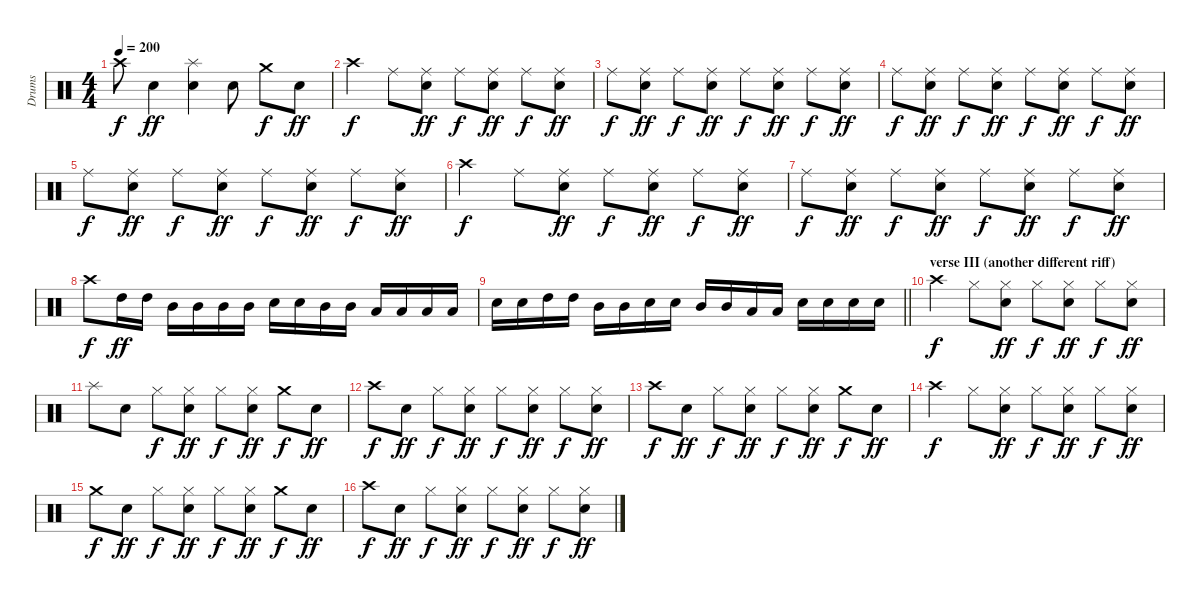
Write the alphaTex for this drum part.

\track ("Drums" "Drums") {instrument percussion}
\staff {score}
\articulation defaults
\ts (4 4)
\tempo 200
\clef neutral
\ks c "Crash high (hit)".8{dy f} "Snare (hit) 2".4{dy ff}
("Splash (hit)" "Snare (hit) 2").4 "Snare (hit) 2".8 "Crash medium (hit)".8{dy f} "Snare (hit) 2".8{dy ff} |
"Crash high (hit)".4{dy f} "Ride (middle)".8 ("Ride (middle)" "Snare (hit) 2").8{dy ff} "Ride (middle)".8{dy f} ("Ride (middle)" "Snare (hit) 2").8{dy ff} "Ride (middle)".8{dy f} ("Ride (middle)" "Snare (hit) 2").8{dy ff} |
"Ride (middle)".8{dy f} ("Ride (middle)" "Snare (hit) 2").8{dy ff} "Ride (middle)".8{dy f} ("Ride (middle)" "Snare (hit) 2").8{dy ff} "Ride (middle)".8{dy f} ("Ride (middle)" "Snare (hit) 2").8{dy ff} "Ride (middle)".8{dy f} ("Ride (middle)" "Snare (hit) 2").8{dy ff} |
"Ride (middle)".8{dy f} ("Ride (middle)" "Snare (hit) 2").8{dy ff} "Ride (middle)".8{dy f} ("Ride (middle)" "Snare (hit) 2").8{dy ff} "Ride (middle)".8{dy f} ("Ride (middle)" "Snare (hit) 2").8{dy ff} "Ride (middle)".8{dy f} ("Ride (middle)" "Snare (hit) 2").8{dy ff} |
"Ride (middle)".8{dy f} ("Ride (middle)" "Snare (hit) 2").8{dy ff} "Ride (middle)".8{dy f} ("Ride (middle)" "Snare (hit) 2").8{dy ff} "Ride (middle)".8{dy f} ("Ride (middle)" "Snare (hit) 2").8{dy ff} "Ride (middle)".8{dy f} ("Ride (middle)" "Snare (hit) 2").8{dy ff} |
"Crash high (hit)".4{dy f} "Ride (middle)".8 ("Ride (middle)" "Snare (hit) 2").8{dy ff} "Ride (middle)".8{dy f} ("Ride (middle)" "Snare (hit) 2").8{dy ff} "Ride (middle)".8{dy f} ("Ride (middle)" "Snare (hit) 2").8{dy ff} |
"Ride (middle)".8{dy f} ("Ride (middle)" "Snare (hit) 2").8{dy ff} "Ride (middle)".8{dy f} ("Ride (middle)" "Snare (hit) 2").8{dy ff} "Ride (middle)".8{dy f} ("Ride (middle)" "Snare (hit) 2").8{dy ff} "Ride (middle)".8{dy f} ("Ride (middle)" "Snare (hit) 2").8{dy ff} |
"Crash high (hit)".8{dy f} "High Tom (hit)".16{dy ff} "High Tom (hit)".16 "Mid Tom (hit)".16 "Mid Tom (hit)".16 "Mid Tom (hit)".16 "Mid Tom (hit)".16 "Snare (hit) 2".16 "Snare (hit) 2".16 "Mid Tom (hit)".16 "Mid Tom (hit)".16 "Low Tom (hit)".16 "Low Tom (hit)".16 "Low Tom (hit)".16 "Low Tom (hit)".16 |
\barLineRight lightlight "Snare (hit) 2".16 "Snare (hit) 2".16 "High Tom (hit)".16 "High Tom (hit)".16 "Mid Tom (hit)".16 "Mid Tom (hit)".16 "Snare (hit) 2".16 "Snare (hit) 2".16 "Mid Tom (hit)".16 "Mid Tom (hit)".16 "Low Tom (hit)".16 "Low Tom (hit)".16 "Snare (hit) 2".16 "Snare (hit) 2".16 "Snare (hit) 2".16 "Snare (hit) 2".16
|
\section ("" "verse III (another different riff)")
"Crash high (hit)".4{dy f} "Hi-Hat (closed)".8 ("Hi-Hat (closed)" "Snare (hit) 2").8{dy ff} "Hi-Hat (closed)".8{dy f} ("Hi-Hat (closed)" "Snare (hit) 2").8{dy ff} "Hi-Hat (closed)".8{dy f} ("Hi-Hat (closed)" "Snare (hit) 2").8{dy ff} |
"Splash (hit)".8 "Snare (hit) 2".8 "Hi-Hat (closed)".8{dy f} ("Hi-Hat (closed)" "Snare (hit) 2").8{dy ff} "Hi-Hat (closed)".8{dy f} ("Hi-Hat (closed)" "Snare (hit) 2").8{dy ff} "Crash medium (hit)".8{dy f} "Snare (hit) 2".8{dy ff} |
"Crash high (hit)".8{dy f} "Snare (hit) 2".8{dy ff} "Hi-Hat (closed)".8{dy f} ("Hi-Hat (closed)" "Snare (hit) 2").8{dy ff} "Hi-Hat (closed)".8{dy f} ("Hi-Hat (closed)" "Snare (hit) 2").8{dy ff} "Hi-Hat (closed)".8{dy f} ("Hi-Hat (closed)" "Snare (hit) 2").8{dy ff} |
"Crash high (hit)".8{dy f} "Snare (hit) 2".8{dy ff} "Hi-Hat (closed)".8{dy f} ("Hi-Hat (closed)" "Snare (hit) 2").8{dy ff} "Hi-Hat (closed)".8{dy f} ("Hi-Hat (closed)" "Snare (hit) 2").8{dy ff} "Crash medium (hit)".8{dy f} "Snare (hit) 2".8{dy ff} |
"Crash high (hit)".4{dy f} "Hi-Hat (closed)".8 ("Hi-Hat (closed)" "Snare (hit) 2").8{dy ff} "Hi-Hat (closed)".8{dy f} ("Hi-Hat (closed)" "Snare (hit) 2").8{dy ff} "Hi-Hat (closed)".8{dy f} ("Hi-Hat (closed)" "Snare (hit) 2").8{dy ff} |
"Crash medium (hit)".8{dy f} "Snare (hit) 2".8{dy ff} "Hi-Hat (closed)".8{dy f} ("Hi-Hat (closed)" "Snare (hit) 2").8{dy ff} "Hi-Hat (closed)".8{dy f} ("Hi-Hat (closed)" "Snare (hit) 2").8{dy ff} "Crash medium (hit)".8{dy f} "Snare (hit) 2".8{dy ff} |
"Crash high (hit)".8{dy f} "Snare (hit) 2".8{dy ff} "Hi-Hat (closed)".8{dy f} ("Hi-Hat (closed)" "Snare (hit) 2").8{dy ff} "Hi-Hat (closed)".8{dy f} ("Hi-Hat (closed)" "Snare (hit) 2").8{dy ff} "Hi-Hat (closed)".8{dy f} ("Hi-Hat (closed)" "Snare (hit) 2").8{dy ff}
